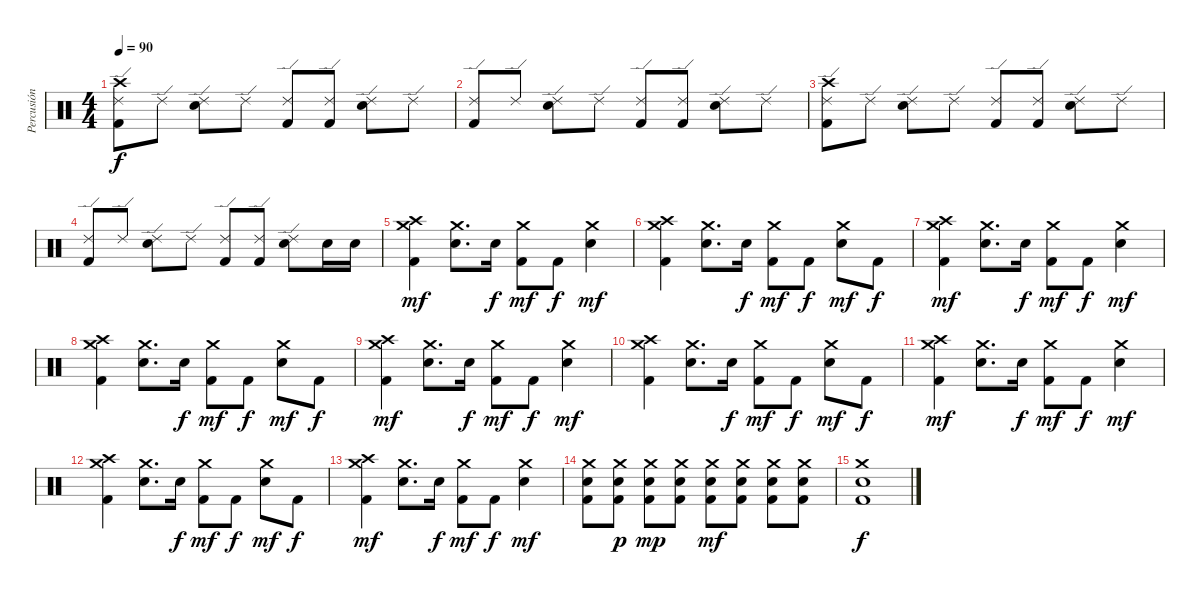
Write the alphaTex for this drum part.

\track ("Percusión" "Percusión") {instrument percussion}
\staff {score}
\articulation defaults
\ts (4 4)
\tempo 90
\clef neutral
\ks c
("Crash high (hit)" "Ride (edge) 2" "Kick (hit) 2").8{dy f} "Ride (edge) 2".8 ("Ride (edge) 2" "Electric Snare (hit)").8 "Ride (edge) 2".8 ("Ride (edge) 2" "Kick (hit) 2").8 ("Ride (edge) 2" "Kick (hit) 2").8 ("Ride (edge) 2" "Electric Snare (hit)").8 "Ride (edge) 2".8 |
("Ride (edge) 2" "Kick (hit) 2").8 "Ride (edge) 2".8 ("Ride (edge) 2" "Electric Snare (hit)").8 "Ride (edge) 2".8 ("Ride (edge) 2" "Kick (hit) 2").8 ("Ride (edge) 2" "Kick (hit) 2").8 ("Ride (edge) 2" "Electric Snare (hit)").8 "Ride (edge) 2".8 |
("Crash high (hit)" "Ride (edge) 2" "Kick (hit) 2").8 "Ride (edge) 2".8 ("Ride (edge) 2" "Electric Snare (hit)").8 "Ride (edge) 2".8 ("Ride (edge) 2" "Kick (hit) 2").8 ("Ride (edge) 2" "Kick (hit) 2").8 ("Ride (edge) 2" "Electric Snare (hit)").8 "Ride (edge) 2".8 |
("Ride (edge) 2" "Kick (hit) 2").8 "Ride (edge) 2".8 ("Ride (edge) 2" "Electric Snare (hit)").8 "Ride (edge) 2".8 ("Ride (edge) 2" "Kick (hit) 2").8 ("Ride (edge) 2" "Kick (hit) 2").8 ("Ride (edge) 2" "Electric Snare (hit)").8 "Electric Snare (hit)".16 "Electric Snare (hit)".16 |
("Crash high (hit)" "Crash medium (hit)" "Kick (hit) 2").4{dy mf} ("Crash medium (hit)" "Electric Snare (hit)").8{d} "Electric Snare (hit)".16{dy f} ("Crash medium (hit)" "Kick (hit) 2").8{dy mf} "Kick (hit) 2".8{dy f} ("Crash medium (hit)" "Electric Snare (hit)").4{dy mf} |
("Crash high (hit)" "Crash medium (hit)" "Kick (hit) 2").4 ("Crash medium (hit)" "Electric Snare (hit)").8{d} "Electric Snare (hit)".16{dy f} ("Crash medium (hit)" "Kick (hit) 2").8{dy mf} "Kick (hit) 2".8{dy f} ("Crash medium (hit)" "Electric Snare (hit)").8{dy mf} "Kick (hit) 2".8{dy f} |
("Crash high (hit)" "Crash medium (hit)" "Kick (hit) 2").4{dy mf} ("Crash medium (hit)" "Electric Snare (hit)").8{d} "Electric Snare (hit)".16{dy f} ("Crash medium (hit)" "Kick (hit) 2").8{dy mf} "Kick (hit) 2".8{dy f} ("Crash medium (hit)" "Electric Snare (hit)").4{dy mf} |
("Crash high (hit)" "Crash medium (hit)" "Kick (hit) 2").4 ("Crash medium (hit)" "Electric Snare (hit)").8{d} "Electric Snare (hit)".16{dy f} ("Crash medium (hit)" "Kick (hit) 2").8{dy mf} "Kick (hit) 2".8{dy f} ("Crash medium (hit)" "Electric Snare (hit)").8{dy mf} "Kick (hit) 2".8{dy f} |
("Crash high (hit)" "Crash medium (hit)" "Kick (hit) 2").4{dy mf} ("Crash medium (hit)" "Electric Snare (hit)").8{d} "Electric Snare (hit)".16{dy f} ("Crash medium (hit)" "Kick (hit) 2").8{dy mf} "Kick (hit) 2".8{dy f} ("Crash medium (hit)" "Electric Snare (hit)").4{dy mf} |
("Crash high (hit)" "Crash medium (hit)" "Kick (hit) 2").4 ("Crash medium (hit)" "Electric Snare (hit)").8{d} "Electric Snare (hit)".16{dy f} ("Crash medium (hit)" "Kick (hit) 2").8{dy mf} "Kick (hit) 2".8{dy f} ("Crash medium (hit)" "Electric Snare (hit)").8{dy mf} "Kick (hit) 2".8{dy f} |
("Crash high (hit)" "Crash medium (hit)" "Kick (hit) 2").4{dy mf} ("Crash medium (hit)" "Electric Snare (hit)").8{d} "Electric Snare (hit)".16{dy f} ("Crash medium (hit)" "Kick (hit) 2").8{dy mf} "Kick (hit) 2".8{dy f} ("Crash medium (hit)" "Electric Snare (hit)").4{dy mf} |
("Crash high (hit)" "Crash medium (hit)" "Kick (hit) 2").4 ("Crash medium (hit)" "Electric Snare (hit)").8{d} "Electric Snare (hit)".16{dy f} ("Crash medium (hit)" "Kick (hit) 2").8{dy mf} "Kick (hit) 2".8{dy f} ("Crash medium (hit)" "Electric Snare (hit)").8{dy mf} "Kick (hit) 2".8{dy f} |
("Crash high (hit)" "Crash medium (hit)" "Kick (hit) 2").4{dy mf} ("Crash medium (hit)" "Electric Snare (hit)").8{d} "Electric Snare (hit)".16{dy f} ("Crash medium (hit)" "Kick (hit) 2").8{dy mf} "Kick (hit) 2".8{dy f} ("Crash medium (hit)" "Electric Snare (hit)").4{dy mf} |
("Crash medium (hit)" "Electric Snare (hit)" "Kick (hit) 2").8 ("Crash medium (hit)" "Electric Snare (hit)" "Kick (hit) 2").8{dy p} ("Crash medium (hit)" "Electric Snare (hit)" "Kick (hit) 2").8{dy mp} ("Crash medium (hit)" "Electric Snare (hit)" "Kick (hit) 2").8 ("Crash medium (hit)" "Electric Snare (hit)" "Kick (hit) 2").8{dy mf} ("Crash medium (hit)" "Electric Snare (hit)" "Kick (hit) 2").8 ("Crash medium (hit)" "Electric Snare (hit)" "Kick (hit) 2").8 ("Crash medium (hit)" "Electric Snare (hit)" "Kick (hit) 2").8 |
("Crash medium (hit)" "Electric Snare (hit)" "Kick (hit) 2").1{dy f}
